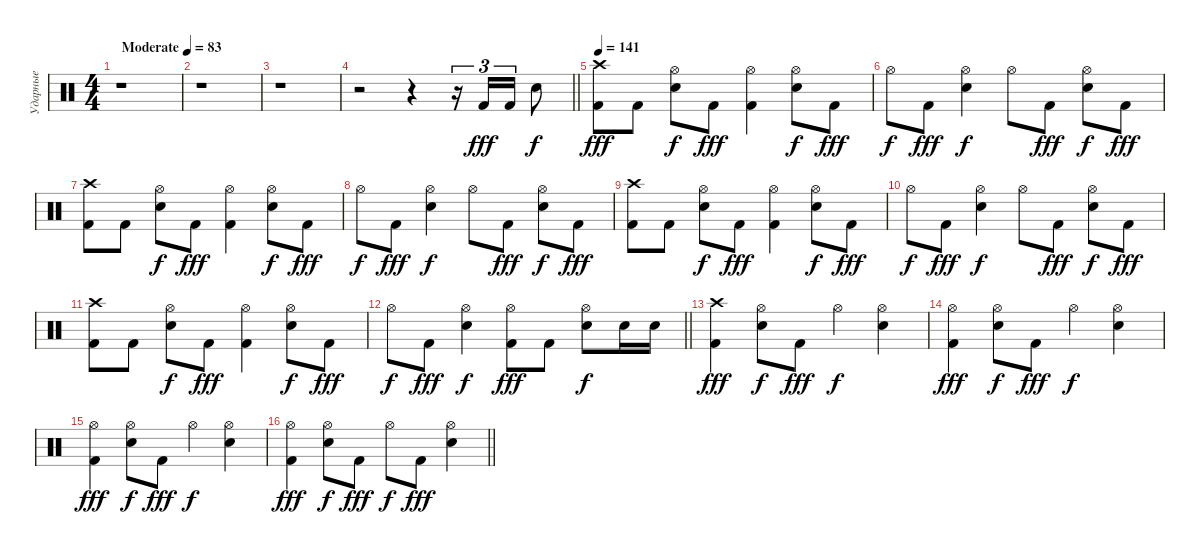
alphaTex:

\track ("Ударные" "Ударные") {instrument percussion}
\staff {score}
\articulation defaults
\ts (4 4)
\tempo (83 "Moderate")
\clef neutral
\ks c
r.1{dy fff} |
r.1 |
r.1 |
\barLineRight lightlight
r.2 r.4 r.16{tu (3 2)} "Kick (hit) 2".16{tu (3 2)} "Kick (hit) 2".16{tu (3 2)} "Snare (hit) 2".8{dy f} |
\tempo 141
("Kick (hit) 2" "Crash high (hit)").8{dy fff} "Kick (hit) 2".8 ("Snare (hit) 2" "Hi-Hat (open)").8{dy f} "Kick (hit) 2".8{dy fff} ("Kick (hit) 2" "Hi-Hat (open)").4 ("Snare (hit) 2" "Hi-Hat (open)").8{dy f} "Kick (hit) 2".8{dy fff} |
"Hi-Hat (open)".8{dy f} "Kick (hit) 2".8{dy fff} ("Snare (hit) 2" "Hi-Hat (open)").4{dy f} "Hi-Hat (open)".8 "Kick (hit) 2".8{dy fff} ("Snare (hit) 2" "Hi-Hat (open)").8{dy f} "Kick (hit) 2".8{dy fff} |
("Kick (hit) 2" "Crash high (hit)").8 "Kick (hit) 2".8 ("Snare (hit) 2" "Hi-Hat (open)").8{dy f} "Kick (hit) 2".8{dy fff} ("Kick (hit) 2" "Hi-Hat (open)").4 ("Snare (hit) 2" "Hi-Hat (open)").8{dy f} "Kick (hit) 2".8{dy fff} |
"Hi-Hat (open)".8{dy f} "Kick (hit) 2".8{dy fff} ("Snare (hit) 2" "Hi-Hat (open)").4{dy f} "Hi-Hat (open)".8 "Kick (hit) 2".8{dy fff} ("Snare (hit) 2" "Hi-Hat (open)").8{dy f} "Kick (hit) 2".8{dy fff} |
("Kick (hit) 2" "Crash high (hit)").8 "Kick (hit) 2".8 ("Snare (hit) 2" "Hi-Hat (open)").8{dy f} "Kick (hit) 2".8{dy fff} ("Kick (hit) 2" "Hi-Hat (open)").4 ("Snare (hit) 2" "Hi-Hat (open)").8{dy f} "Kick (hit) 2".8{dy fff} |
"Hi-Hat (open)".8{dy f} "Kick (hit) 2".8{dy fff} ("Snare (hit) 2" "Hi-Hat (open)").4{dy f} "Hi-Hat (open)".8 "Kick (hit) 2".8{dy fff} ("Snare (hit) 2" "Hi-Hat (open)").8{dy f} "Kick (hit) 2".8{dy fff} |
("Kick (hit) 2" "Crash high (hit)").8 "Kick (hit) 2".8 ("Snare (hit) 2" "Hi-Hat (open)").8{dy f} "Kick (hit) 2".8{dy fff} ("Kick (hit) 2" "Hi-Hat (open)").4 ("Snare (hit) 2" "Hi-Hat (open)").8{dy f} "Kick (hit) 2".8{dy fff} |
\barLineRight lightlight "Hi-Hat (open)".8{dy f} "Kick (hit) 2".8{dy fff}
("Snare (hit) 2" "Hi-Hat (open)").4{dy f} ("Kick (hit) 2" "Hi-Hat (open)").8{dy fff} "Kick (hit) 2".8 ("Snare (hit) 2" "Hi-Hat (open)").8{dy f} "Snare (hit) 2".16 "Snare (hit) 2".16 |
("Kick (hit) 2" "Crash high (hit)").4{dy fff} ("Snare (hit) 2" "Hi-Hat (open)").8{dy f} "Kick (hit) 2".8{dy fff} "Hi-Hat (open)".4{dy f} ("Snare (hit) 2" "Hi-Hat (open)").4 |
("Kick (hit) 2" "Hi-Hat (open)").4{dy fff} ("Snare (hit) 2" "Hi-Hat (open)").8{dy f} "Kick (hit) 2".8{dy fff} "Hi-Hat (open)".4{dy f} ("Snare (hit) 2" "Hi-Hat (open)").4 |
("Kick (hit) 2" "Hi-Hat (open)").4{dy fff} ("Snare (hit) 2" "Hi-Hat (open)").8{dy f} "Kick (hit) 2".8{dy fff} "Hi-Hat (open)".4{dy f} ("Snare (hit) 2" "Hi-Hat (open)").4 |
\barLineRight lightlight
("Kick (hit) 2" "Hi-Hat (open)").4{dy fff} ("Snare (hit) 2" "Hi-Hat (open)").8{dy f} "Kick (hit) 2".8{dy fff} "Hi-Hat (open)".8{dy f} "Kick (hit) 2".8{dy fff} ("Snare (hit) 2" "Hi-Hat (open)").4
